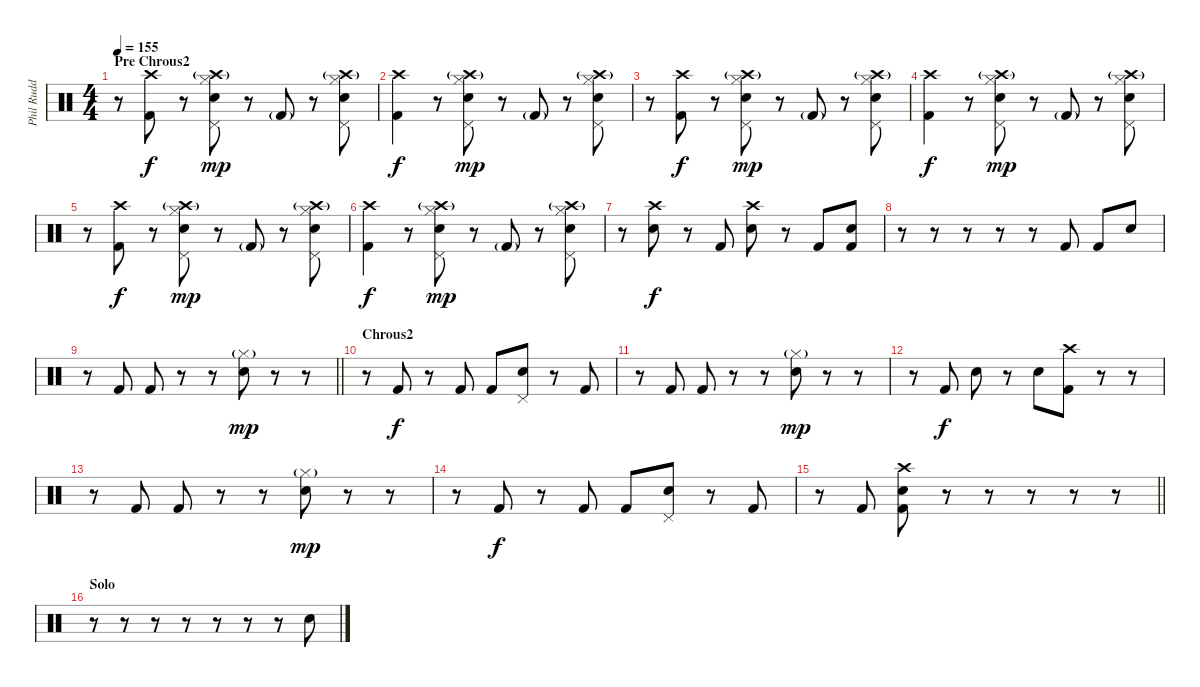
\track ("Phil Rudd" "Phil Rudd") {instrument percussion}
\staff {score}
\articulation defaults
\ts (4 4)
\section ("" "Pre Chrous2")
\tempo 155
\clef neutral
\ks c
r.8{dy mp} ("Crash high (hit)" "Kick (hit) 2").8{dy f} r.8 ("Snare (hit) 2" "Pedal Hi-Hat (hit)" "Hi-Hat (closed)" "Crash high (hit)"{g}).8{dy mp} r.8 "Kick (hit) 2"{g}.8 r.8 ("Snare (hit) 2" "Pedal Hi-Hat (hit)" "Hi-Hat (closed)" "Crash high (hit)"{g}).8 |
("Kick (hit) 2" "Crash high (hit)").4{dy f} r.8 ("Snare (hit) 2" "Pedal Hi-Hat (hit)" "Hi-Hat (closed)" "Crash high (hit)"{g}).8{dy mp} r.8 "Kick (hit) 2"{g}.8 r.8 ("Snare (hit) 2" "Pedal Hi-Hat (hit)" "Hi-Hat (closed)" "Crash high (hit)"{g}).8 |
r.8 ("Crash high (hit)" "Kick (hit) 2").8{dy f} r.8 ("Snare (hit) 2" "Pedal Hi-Hat (hit)" "Hi-Hat (closed)" "Crash high (hit)"{g}).8{dy mp} r.8 "Kick (hit) 2"{g}.8 r.8 ("Snare (hit) 2" "Pedal Hi-Hat (hit)" "Hi-Hat (closed)" "Crash high (hit)"{g}).8 |
("Kick (hit) 2" "Crash high (hit)").4{dy f} r.8 ("Snare (hit) 2" "Pedal Hi-Hat (hit)" "Hi-Hat (closed)" "Crash high (hit)"{g}).8{dy mp} r.8 "Kick (hit) 2"{g}.8 r.8 ("Snare (hit) 2" "Pedal Hi-Hat (hit)" "Hi-Hat (closed)" "Crash high (hit)"{g}).8 |
r.8 ("Crash high (hit)" "Kick (hit) 2").8{dy f} r.8 ("Snare (hit) 2" "Pedal Hi-Hat (hit)" "Hi-Hat (closed)" "Crash high (hit)"{g}).8{dy mp} r.8 "Kick (hit) 2"{g}.8 r.8 ("Snare (hit) 2" "Pedal Hi-Hat (hit)" "Hi-Hat (closed)" "Crash high (hit)"{g}).8 |
("Kick (hit) 2" "Crash high (hit)").4{dy f} r.8 ("Snare (hit) 2" "Pedal Hi-Hat (hit)" "Hi-Hat (closed)" "Crash high (hit)"{g}).8{dy mp} r.8 "Kick (hit) 2"{g}.8 r.8 ("Snare (hit) 2" "Pedal Hi-Hat (hit)" "Hi-Hat (closed)" "Crash high (hit)"{g}).8 |
r.8 ("Crash high (hit)" "Snare (hit) 2").8{dy f} r.8 "Kick (hit) 2".8 ("Crash high (hit)" "Snare (hit) 2").8 r.8 "Kick (hit) 2".8 ("Kick (hit) 2" "Snare (hit) 2").8 |
r.8 r.8 r.8 r.8 r.8 "Kick (hit) 2".8 "Kick (hit) 2".8 "Snare (hit) 2".8 |
\barLineRight lightlight
r.8 "Kick (hit) 2".8 "Kick (hit) 2".8 r.8 r.8 ("Hi-Hat (closed)"{g} "Snare (hit) 2").8{dy mp} r.8 r.8 |
\section ("" "Chrous2")
r.8 "Kick (hit) 2".8{dy f} r.8 "Kick (hit) 2".8 "Kick (hit) 2".8 ("Pedal Hi-Hat (hit)" "Snare (hit) 2").8 r.8 "Kick (hit) 2".8 |
r.8 "Kick (hit) 2".8 "Kick (hit) 2".8 r.8 r.8 ("Hi-Hat (closed)"{g} "Snare (hit) 2").8{dy mp} r.8 r.8 |
r.8 "Kick (hit) 2".8{dy f} "Snare (hit) 2".8 r.8 "Snare (hit) 2".8 ("Kick (hit) 2" "Crash high (hit)").8 r.8 r.8 |
r.8 "Kick (hit) 2".8 "Kick (hit) 2".8 r.8 r.8 ("Hi-Hat (closed)"{g} "Snare (hit) 2").8{dy mp} r.8 r.8 |
r.8 "Kick (hit) 2".8{dy f} r.8 "Kick (hit) 2".8 "Kick (hit) 2".8 ("Pedal Hi-Hat (hit)" "Snare (hit) 2").8 r.8 "Kick (hit) 2".8 |
\barLineRight lightlight
r.8 "Kick (hit) 2".8 ("Snare (hit) 2" "Crash high (hit)" "Kick (hit) 2").8 r.8 r.8 r.8 r.8 r.8 |
\section ("" "Solo")
r.8 r.8 r.8 r.8 r.8 r.8 r.8 "Snare (hit) 2".8
